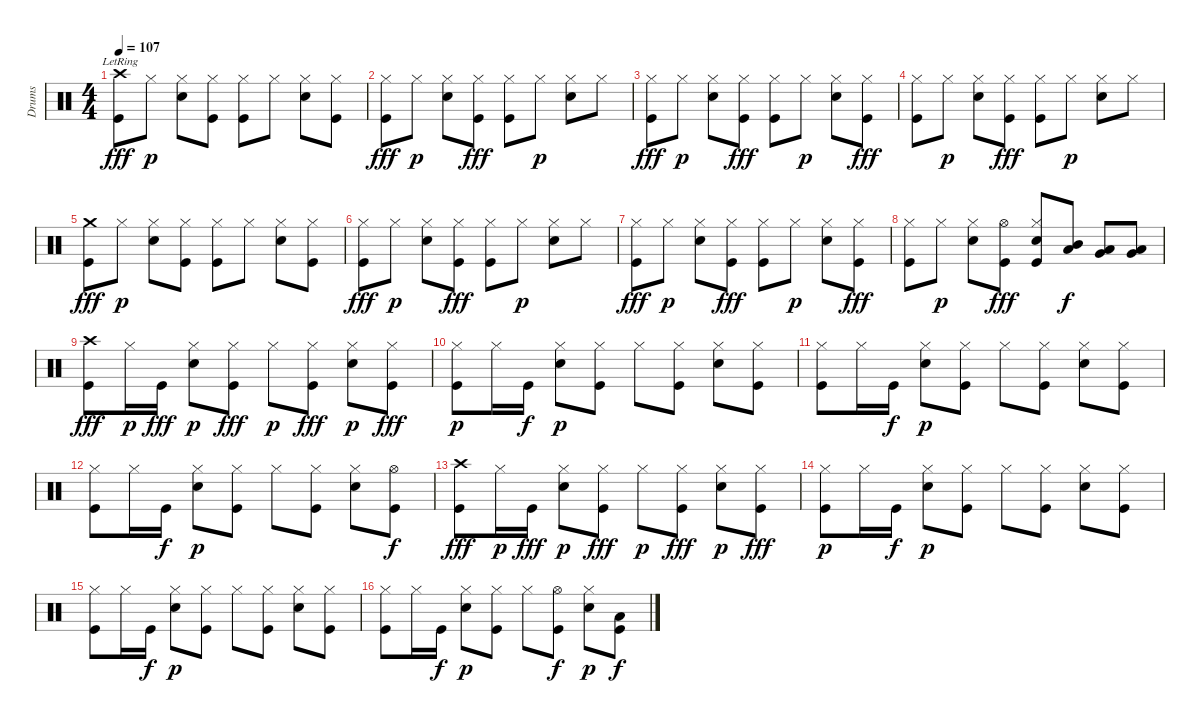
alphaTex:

\track ("Drums" "Drums") {instrument percussion}
\staff {score}
\articulation defaults
\ts (4 4)
\tempo 107
\clef neutral
\ks c
("Crash high (hit)"{lr} "Kick (hit)").8{dy fff} "Hi-Hat (closed)".8{dy p} ("Electric Snare (hit)" "Hi-Hat (closed)").8 ("Hi-Hat (closed)" "Kick (hit)").8 ("Hi-Hat (closed)" "Kick (hit)").8 "Hi-Hat (closed)".8 ("Electric Snare (hit)" "Hi-Hat (closed)").8 ("Hi-Hat (closed)" "Kick (hit)").8 |
("Hi-Hat (closed)" "Kick (hit)").8{dy fff} "Hi-Hat (closed)".8{dy p} ("Electric Snare (hit)" "Hi-Hat (closed)").8 ("Hi-Hat (closed)" "Kick (hit)").8{dy fff} ("Hi-Hat (closed)" "Kick (hit)").8 "Hi-Hat (closed)".8{dy p} ("Electric Snare (hit)" "Hi-Hat (closed)").8 "Hi-Hat (closed)".8 |
("Hi-Hat (closed)" "Kick (hit)").8{dy fff} "Hi-Hat (closed)".8{dy p} ("Electric Snare (hit)" "Hi-Hat (closed)").8 ("Hi-Hat (closed)" "Kick (hit)").8{dy fff} ("Hi-Hat (closed)" "Kick (hit)").8 "Hi-Hat (closed)".8{dy p} ("Electric Snare (hit)" "Hi-Hat (closed)").8 ("Hi-Hat (closed)" "Kick (hit)").8{dy fff} |
("Hi-Hat (closed)" "Kick (hit)").8 "Hi-Hat (closed)".8{dy p} ("Electric Snare (hit)" "Hi-Hat (closed)").8 ("Hi-Hat (closed)" "Kick (hit)").8{dy fff} ("Hi-Hat (closed)" "Kick (hit)").8 "Hi-Hat (closed)".8{dy p} ("Electric Snare (hit)" "Hi-Hat (closed)").8 "Hi-Hat (closed)".8 |
("Crash medium (hit)" "Kick (hit)").8{dy fff} "Hi-Hat (closed)".8{dy p} ("Electric Snare (hit)" "Hi-Hat (closed)").8 ("Hi-Hat (closed)" "Kick (hit)").8 ("Hi-Hat (closed)" "Kick (hit)").8 "Hi-Hat (closed)".8 ("Electric Snare (hit)" "Hi-Hat (closed)").8 ("Hi-Hat (closed)" "Kick (hit)").8 |
("Hi-Hat (closed)" "Kick (hit)").8{dy fff} "Hi-Hat (closed)".8{dy p} ("Electric Snare (hit)" "Hi-Hat (closed)").8 ("Hi-Hat (closed)" "Kick (hit)").8{dy fff} ("Hi-Hat (closed)" "Kick (hit)").8 "Hi-Hat (closed)".8{dy p} ("Electric Snare (hit)" "Hi-Hat (closed)").8 "Hi-Hat (closed)".8 |
("Hi-Hat (closed)" "Kick (hit)").8{dy fff} "Hi-Hat (closed)".8{dy p} ("Electric Snare (hit)" "Hi-Hat (closed)").8 ("Hi-Hat (closed)" "Kick (hit)").8{dy fff} ("Hi-Hat (closed)" "Kick (hit)").8 "Hi-Hat (closed)".8{dy p} ("Electric Snare (hit)" "Hi-Hat (closed)").8 ("Hi-Hat (closed)" "Kick (hit)").8{dy fff} |
("Hi-Hat (closed)" "Kick (hit)").8 "Hi-Hat (closed)".8{dy p} ("Electric Snare (hit)" "Hi-Hat (closed)").8 ("Hi-Hat (open)" "Kick (hit)").8{dy fff} ("Electric Snare (hit)" "Hi-Hat (closed)" "Kick (hit)").8 ("Mid Tom (hit)" "Low Tom (hit)").8{dy f} ("Low Tom (hit)" "Very Low Tom (hit)").8 ("Very Low Tom (hit)" "Low Floor Tom (hit)").8 |
("Crash high (hit)" "Kick (hit)").8{dy fff} "Hi-Hat (closed)".16{dy p} "Kick (hit)".16{dy fff} ("Electric Snare (hit)" "Hi-Hat (closed)").8{dy p} ("Hi-Hat (closed)" "Kick (hit)").8{dy fff} "Hi-Hat (closed)".8{dy p} ("Hi-Hat (closed)" "Kick (hit)").8{dy fff} ("Electric Snare (hit)" "Hi-Hat (closed)").8{dy p} ("Hi-Hat (closed)" "Kick (hit)").8{dy fff} |
("Hi-Hat (closed)" "Kick (hit)").8{dy p} "Hi-Hat (closed)".16 "Kick (hit)".16{dy f} ("Electric Snare (hit)" "Hi-Hat (closed)").8{dy p} ("Hi-Hat (closed)" "Kick (hit)").8 "Hi-Hat (closed)".8 ("Hi-Hat (closed)" "Kick (hit)").8 ("Electric Snare (hit)" "Hi-Hat (closed)").8 ("Hi-Hat (closed)" "Kick (hit)").8 |
("Hi-Hat (closed)" "Kick (hit)").8 "Hi-Hat (closed)".16 "Kick (hit)".16{dy f} ("Electric Snare (hit)" "Hi-Hat (closed)").8{dy p} ("Hi-Hat (closed)" "Kick (hit)").8 "Hi-Hat (closed)".8 ("Hi-Hat (closed)" "Kick (hit)").8 ("Electric Snare (hit)" "Hi-Hat (closed)").8 ("Hi-Hat (closed)" "Kick (hit)").8 |
("Hi-Hat (closed)" "Kick (hit)").8 "Hi-Hat (closed)".16 "Kick (hit)".16{dy f} ("Electric Snare (hit)" "Hi-Hat (closed)").8{dy p} ("Hi-Hat (closed)" "Kick (hit)").8 "Hi-Hat (closed)".8 ("Hi-Hat (closed)" "Kick (hit)").8 ("Electric Snare (hit)" "Hi-Hat (closed)").8 ("Hi-Hat (open)" "Kick (hit)").8{dy f} |
("Crash high (hit)" "Kick (hit)").8{dy fff} "Hi-Hat (closed)".16{dy p} "Kick (hit)".16{dy fff} ("Electric Snare (hit)" "Hi-Hat (closed)").8{dy p} ("Hi-Hat (closed)" "Kick (hit)").8{dy fff} "Hi-Hat (closed)".8{dy p} ("Hi-Hat (closed)" "Kick (hit)").8{dy fff} ("Electric Snare (hit)" "Hi-Hat (closed)").8{dy p} ("Hi-Hat (closed)" "Kick (hit)").8{dy fff} |
("Hi-Hat (closed)" "Kick (hit)").8{dy p} "Hi-Hat (closed)".16 "Kick (hit)".16{dy f} ("Electric Snare (hit)" "Hi-Hat (closed)").8{dy p} ("Hi-Hat (closed)" "Kick (hit)").8 "Hi-Hat (closed)".8 ("Hi-Hat (closed)" "Kick (hit)").8 ("Electric Snare (hit)" "Hi-Hat (closed)").8 ("Hi-Hat (closed)" "Kick (hit)").8 |
("Hi-Hat (closed)" "Kick (hit)").8 "Hi-Hat (closed)".16 "Kick (hit)".16{dy f} ("Electric Snare (hit)" "Hi-Hat (closed)").8{dy p} ("Hi-Hat (closed)" "Kick (hit)").8 "Hi-Hat (closed)".8 ("Hi-Hat (closed)" "Kick (hit)").8 ("Electric Snare (hit)" "Hi-Hat (closed)").8 ("Hi-Hat (closed)" "Kick (hit)").8 |
("Hi-Hat (closed)" "Kick (hit)").8 "Hi-Hat (closed)".16 "Kick (hit)".16{dy f} ("Electric Snare (hit)" "Hi-Hat (closed)").8{dy p} ("Hi-Hat (closed)" "Kick (hit)").8 "Hi-Hat (closed)".8 ("Hi-Hat (open)" "Kick (hit)").8{dy f} ("Electric Snare (hit)" "Hi-Hat (closed)").8{dy p} ("Low Floor Tom (hit)" "Kick (hit)").8{dy f}
